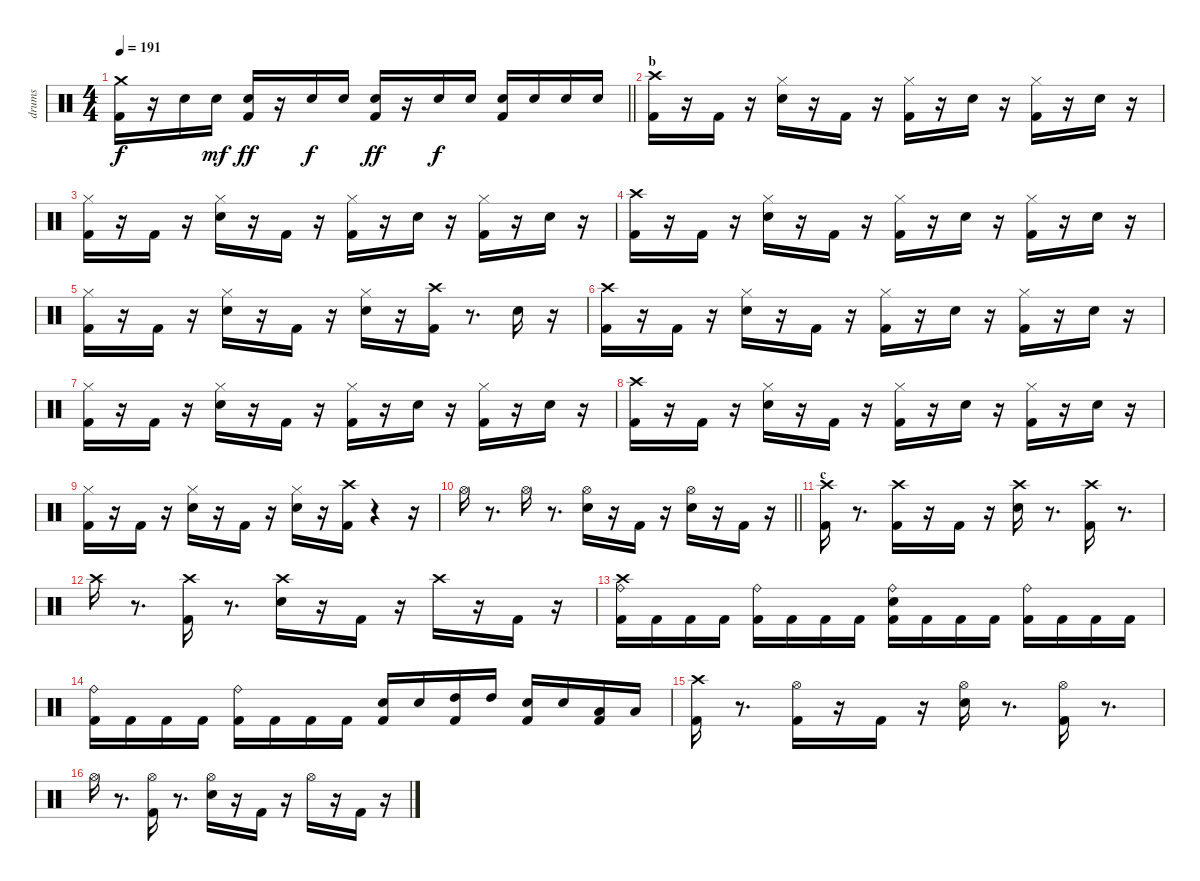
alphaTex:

\track ("drums" "drums") {instrument percussion}
\staff {score}
\articulation defaults
\ts (4 4)
\tempo 191
\clef neutral
\barLineRight lightlight
\ks c
("Kick (hit) 2" "Crash medium (hit)").16{dy f} r.16 "Snare (hit) 2".16 "Snare (hit) 2".16{dy mf} ("Kick (hit) 2" "Snare (hit) 2").16{dy ff} r.16 "Snare (hit) 2".16{dy f} "Snare (hit) 2".16 ("Kick (hit) 2" "Snare (hit) 2").16{dy ff} r.16 "Snare (hit) 2".16{dy f} "Snare (hit) 2".16 ("Kick (hit) 2" "Snare (hit) 2").16 "Snare (hit) 2".16 "Snare (hit) 2".16 "Snare (hit) 2".16 |
\section ("" "b")
("Kick (hit) 2" "Crash high (hit)").16 r.16 "Kick (hit) 2".16 r.16 ("Snare (hit) 2" "Hi-Hat (closed)").16 r.16 "Kick (hit) 2".16 r.16 ("Kick (hit) 2" "Hi-Hat (closed)").16 r.16 "Snare (hit) 2".16 r.16 ("Kick (hit) 2" "Hi-Hat (closed)").16 r.16 "Snare (hit) 2".16 r.16 |
("Kick (hit) 2" "Hi-Hat (closed)").16 r.16 "Kick (hit) 2".16 r.16 ("Snare (hit) 2" "Hi-Hat (closed)").16 r.16 "Kick (hit) 2".16 r.16 ("Kick (hit) 2" "Hi-Hat (closed)").16 r.16 "Snare (hit) 2".16 r.16 ("Kick (hit) 2" "Hi-Hat (closed)").16 r.16 "Snare (hit) 2".16 r.16 |
("Kick (hit) 2" "Crash high (hit)").16 r.16 "Kick (hit) 2".16 r.16 ("Snare (hit) 2" "Hi-Hat (closed)").16 r.16 "Kick (hit) 2".16 r.16 ("Kick (hit) 2" "Hi-Hat (closed)").16 r.16 "Snare (hit) 2".16 r.16 ("Kick (hit) 2" "Hi-Hat (closed)").16 r.16 "Snare (hit) 2".16 r.16 |
("Kick (hit) 2" "Hi-Hat (closed)").16 r.16 "Kick (hit) 2".16 r.16 ("Snare (hit) 2" "Hi-Hat (closed)").16 r.16 "Kick (hit) 2".16 r.16 ("Snare (hit) 2" "Hi-Hat (closed)").16 r.16 ("Kick (hit) 2" "Crash high (hit)").16 r.8{d} "Snare (hit) 2".16 r.16 |
("Kick (hit) 2" "Crash high (hit)").16 r.16 "Kick (hit) 2".16 r.16 ("Snare (hit) 2" "Hi-Hat (closed)").16 r.16 "Kick (hit) 2".16 r.16 ("Kick (hit) 2" "Hi-Hat (closed)").16 r.16 "Snare (hit) 2".16 r.16 ("Kick (hit) 2" "Hi-Hat (closed)").16 r.16 "Snare (hit) 2".16 r.16 |
("Kick (hit) 2" "Hi-Hat (closed)").16 r.16 "Kick (hit) 2".16 r.16 ("Snare (hit) 2" "Hi-Hat (closed)").16 r.16 "Kick (hit) 2".16 r.16 ("Kick (hit) 2" "Hi-Hat (closed)").16 r.16 "Snare (hit) 2".16 r.16 ("Kick (hit) 2" "Hi-Hat (closed)").16 r.16 "Snare (hit) 2".16 r.16 |
("Kick (hit) 2" "Crash high (hit)").16 r.16 "Kick (hit) 2".16 r.16 ("Snare (hit) 2" "Hi-Hat (closed)").16 r.16 "Kick (hit) 2".16 r.16 ("Kick (hit) 2" "Hi-Hat (closed)").16 r.16 "Snare (hit) 2".16 r.16 ("Kick (hit) 2" "Hi-Hat (closed)").16 r.16 "Snare (hit) 2".16 r.16 |
("Kick (hit) 2" "Hi-Hat (closed)").16 r.16 "Kick (hit) 2".16 r.16 ("Snare (hit) 2" "Hi-Hat (closed)").16 r.16 "Kick (hit) 2".16 r.16 ("Snare (hit) 2" "Hi-Hat (closed)").16 r.16 ("Kick (hit) 2" "Crash high (hit)").16 r.4 r.16 |
\barLineRight lightlight "Hi-Hat (open)".16
r.8{d} "Hi-Hat (open)".16 r.8{d} ("Snare (hit) 2" "Hi-Hat (open)").16 r.16 "Kick (hit) 2".16 r.16 ("Snare (hit) 2" "Hi-Hat (open)").16 r.16 "Kick (hit) 2".16 r.16 |
\section ("" "c")
("Kick (hit) 2" "Crash high (hit)").16 r.8{d} ("Kick (hit) 2" "Crash high (hit)").16 r.16 "Kick (hit) 2".16 r.16 ("Snare (hit) 2" "Crash high (hit)").16 r.8{d} ("Kick (hit) 2" "Crash high (hit)").16 r.8{d} |
"Crash high (hit)".16 r.8{d} ("Kick (hit) 2" "Crash high (hit)").16 r.8{d} ("Snare (hit) 2" "Crash high (hit)").16 r.16 "Kick (hit) 2".16 r.16 "Crash high (hit)".16 r.16 "Kick (hit) 2".16 r.16 |
("Kick (hit) 2" "Crash high (hit)" "Ride (bell)").16 "Kick (hit) 2".16 "Kick (hit) 2".16 "Kick (hit) 2".16 ("Kick (hit) 2" "Ride (bell)").16 "Kick (hit) 2".16 "Kick (hit) 2".16 "Kick (hit) 2".16 ("Kick (hit) 2" "Snare (hit) 2" "Ride (bell)").16 "Kick (hit) 2".16 "Kick (hit) 2".16 "Kick (hit) 2".16 ("Kick (hit) 2" "Ride (bell)").16 "Kick (hit) 2".16 "Kick (hit) 2".16 "Kick (hit) 2".16 |
("Kick (hit) 2" "Ride (bell)").16 "Kick (hit) 2".16 "Kick (hit) 2".16 "Kick (hit) 2".16 ("Kick (hit) 2" "Ride (bell)").16 "Kick (hit) 2".16 "Kick (hit) 2".16 "Kick (hit) 2".16 ("Kick (hit) 2" "Snare (hit) 2").16 "Snare (hit) 2".16 ("Kick (hit) 2" "High Tom (hit)").16 "High Tom (hit)".16 ("Kick (hit) 2" "Snare (hit) 2").16 "Snare (hit) 2".16 ("Kick (hit) 2" "Low Tom (hit)").16 "Low Tom (hit)".16 |
("Kick (hit) 2" "Crash high (hit)").16 r.8{d} ("Kick (hit) 2" "Hi-Hat (open)").16 r.16 "Kick (hit) 2".16 r.16 ("Snare (hit) 2" "Hi-Hat (open)").16 r.8{d} ("Kick (hit) 2" "Hi-Hat (open)").16 r.8{d} |
"Hi-Hat (open)".16 r.8{d} ("Kick (hit) 2" "Hi-Hat (open)").16 r.8{d} ("Snare (hit) 2" "Hi-Hat (open)").16 r.16 "Kick (hit) 2".16 r.16 "Hi-Hat (open)".16 r.16 "Kick (hit) 2".16 r.16
